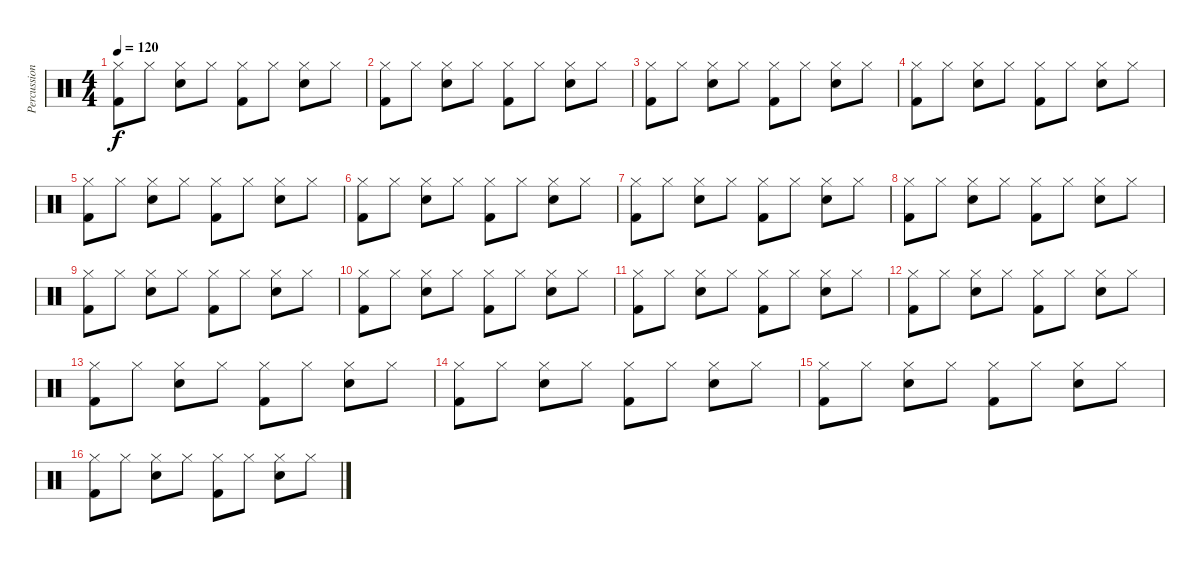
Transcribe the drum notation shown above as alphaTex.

\track ("Percussions" "Percussion") {instrument percussion}
\staff {score}
\articulation defaults
\ts (4 4)
\tempo 120
\clef neutral
\ks c
("Hi-Hat (closed)" "Kick (hit) 2").8{dy f} "Hi-Hat (closed)".8 ("Hi-Hat (closed)" "Snare (hit) 2").8 "Hi-Hat (closed)".8 ("Hi-Hat (closed)" "Kick (hit) 2").8 "Hi-Hat (closed)".8 ("Hi-Hat (closed)" "Snare (hit) 2").8 "Hi-Hat (closed)".8 |
("Hi-Hat (closed)" "Kick (hit) 2").8 "Hi-Hat (closed)".8 ("Hi-Hat (closed)" "Snare (hit) 2").8 "Hi-Hat (closed)".8 ("Hi-Hat (closed)" "Kick (hit) 2").8 "Hi-Hat (closed)".8 ("Hi-Hat (closed)" "Snare (hit) 2").8 "Hi-Hat (closed)".8 |
("Hi-Hat (closed)" "Kick (hit) 2").8 "Hi-Hat (closed)".8 ("Hi-Hat (closed)" "Snare (hit) 2").8 "Hi-Hat (closed)".8 ("Hi-Hat (closed)" "Kick (hit) 2").8 "Hi-Hat (closed)".8 ("Hi-Hat (closed)" "Snare (hit) 2").8 "Hi-Hat (closed)".8 |
("Hi-Hat (closed)" "Kick (hit) 2").8 "Hi-Hat (closed)".8 ("Hi-Hat (closed)" "Snare (hit) 2").8 "Hi-Hat (closed)".8 ("Hi-Hat (closed)" "Kick (hit) 2").8 "Hi-Hat (closed)".8 ("Hi-Hat (closed)" "Snare (hit) 2").8 "Hi-Hat (closed)".8 |
("Hi-Hat (closed)" "Kick (hit) 2").8 "Hi-Hat (closed)".8 ("Hi-Hat (closed)" "Snare (hit) 2").8 "Hi-Hat (closed)".8 ("Hi-Hat (closed)" "Kick (hit) 2").8 "Hi-Hat (closed)".8 ("Hi-Hat (closed)" "Snare (hit) 2").8 "Hi-Hat (closed)".8 |
("Hi-Hat (closed)" "Kick (hit) 2").8 "Hi-Hat (closed)".8 ("Hi-Hat (closed)" "Snare (hit) 2").8 "Hi-Hat (closed)".8 ("Hi-Hat (closed)" "Kick (hit) 2").8 "Hi-Hat (closed)".8 ("Hi-Hat (closed)" "Snare (hit) 2").8 "Hi-Hat (closed)".8 |
("Hi-Hat (closed)" "Kick (hit) 2").8 "Hi-Hat (closed)".8 ("Hi-Hat (closed)" "Snare (hit) 2").8 "Hi-Hat (closed)".8 ("Hi-Hat (closed)" "Kick (hit) 2").8 "Hi-Hat (closed)".8 ("Hi-Hat (closed)" "Snare (hit) 2").8 "Hi-Hat (closed)".8 |
("Hi-Hat (closed)" "Kick (hit) 2").8 "Hi-Hat (closed)".8 ("Hi-Hat (closed)" "Snare (hit) 2").8 "Hi-Hat (closed)".8 ("Hi-Hat (closed)" "Kick (hit) 2").8 "Hi-Hat (closed)".8 ("Hi-Hat (closed)" "Snare (hit) 2").8 "Hi-Hat (closed)".8 |
("Hi-Hat (closed)" "Kick (hit) 2").8 "Hi-Hat (closed)".8 ("Hi-Hat (closed)" "Snare (hit) 2").8 "Hi-Hat (closed)".8 ("Hi-Hat (closed)" "Kick (hit) 2").8 "Hi-Hat (closed)".8 ("Hi-Hat (closed)" "Snare (hit) 2").8 "Hi-Hat (closed)".8 |
("Hi-Hat (closed)" "Kick (hit) 2").8 "Hi-Hat (closed)".8 ("Hi-Hat (closed)" "Snare (hit) 2").8 "Hi-Hat (closed)".8 ("Hi-Hat (closed)" "Kick (hit) 2").8 "Hi-Hat (closed)".8 ("Hi-Hat (closed)" "Snare (hit) 2").8 "Hi-Hat (closed)".8 |
("Hi-Hat (closed)" "Kick (hit) 2").8 "Hi-Hat (closed)".8 ("Hi-Hat (closed)" "Snare (hit) 2").8 "Hi-Hat (closed)".8 ("Hi-Hat (closed)" "Kick (hit) 2").8 "Hi-Hat (closed)".8 ("Hi-Hat (closed)" "Snare (hit) 2").8 "Hi-Hat (closed)".8 |
("Hi-Hat (closed)" "Kick (hit) 2").8 "Hi-Hat (closed)".8 ("Hi-Hat (closed)" "Snare (hit) 2").8 "Hi-Hat (closed)".8 ("Hi-Hat (closed)" "Kick (hit) 2").8 "Hi-Hat (closed)".8 ("Hi-Hat (closed)" "Snare (hit) 2").8 "Hi-Hat (closed)".8 |
("Hi-Hat (closed)" "Kick (hit) 2").8 "Hi-Hat (closed)".8 ("Hi-Hat (closed)" "Snare (hit) 2").8 "Hi-Hat (closed)".8 ("Hi-Hat (closed)" "Kick (hit) 2").8 "Hi-Hat (closed)".8 ("Hi-Hat (closed)" "Snare (hit) 2").8 "Hi-Hat (closed)".8 |
("Hi-Hat (closed)" "Kick (hit) 2").8 "Hi-Hat (closed)".8 ("Hi-Hat (closed)" "Snare (hit) 2").8 "Hi-Hat (closed)".8 ("Hi-Hat (closed)" "Kick (hit) 2").8 "Hi-Hat (closed)".8 ("Hi-Hat (closed)" "Snare (hit) 2").8 "Hi-Hat (closed)".8 |
("Hi-Hat (closed)" "Kick (hit) 2").8 "Hi-Hat (closed)".8 ("Hi-Hat (closed)" "Snare (hit) 2").8 "Hi-Hat (closed)".8 ("Hi-Hat (closed)" "Kick (hit) 2").8 "Hi-Hat (closed)".8 ("Hi-Hat (closed)" "Snare (hit) 2").8 "Hi-Hat (closed)".8 |
("Hi-Hat (closed)" "Kick (hit) 2").8 "Hi-Hat (closed)".8 ("Hi-Hat (closed)" "Snare (hit) 2").8 "Hi-Hat (closed)".8 ("Hi-Hat (closed)" "Kick (hit) 2").8 "Hi-Hat (closed)".8 ("Hi-Hat (closed)" "Snare (hit) 2").8 "Hi-Hat (closed)".8
